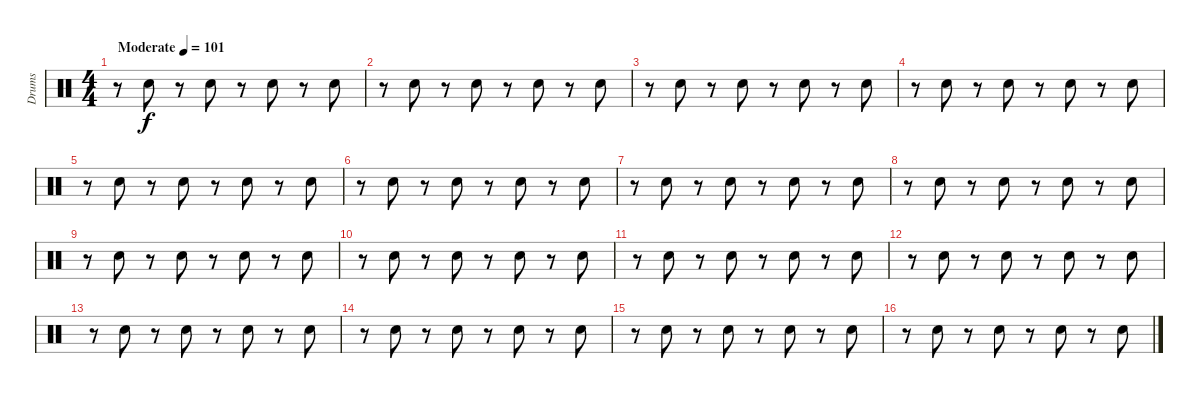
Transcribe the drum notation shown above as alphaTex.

\track ("Drums" "Drums") {instrument percussion}
\staff {score}
\articulation defaults
\ts (4 4)
\tempo (101 "Moderate")
\clef neutral
\ks c
r.8{dy f} "Electric Snare (hit)".8 r.8 "Electric Snare (hit)".8 r.8 "Electric Snare (hit)".8 r.8 "Electric Snare (hit)".8 |
r.8 "Electric Snare (hit)".8 r.8 "Electric Snare (hit)".8 r.8 "Electric Snare (hit)".8 r.8 "Electric Snare (hit)".8 |
r.8 "Electric Snare (hit)".8 r.8 "Electric Snare (hit)".8 r.8 "Electric Snare (hit)".8 r.8 "Electric Snare (hit)".8 |
r.8 "Electric Snare (hit)".8 r.8 "Electric Snare (hit)".8 r.8 "Electric Snare (hit)".8 r.8 "Electric Snare (hit)".8 |
r.8 "Electric Snare (hit)".8 r.8 "Electric Snare (hit)".8 r.8 "Electric Snare (hit)".8 r.8 "Electric Snare (hit)".8 |
r.8 "Electric Snare (hit)".8 r.8 "Electric Snare (hit)".8 r.8 "Electric Snare (hit)".8 r.8 "Electric Snare (hit)".8 |
r.8 "Electric Snare (hit)".8 r.8 "Electric Snare (hit)".8 r.8 "Electric Snare (hit)".8 r.8 "Electric Snare (hit)".8 |
r.8 "Electric Snare (hit)".8 r.8 "Electric Snare (hit)".8 r.8 "Electric Snare (hit)".8 r.8 "Electric Snare (hit)".8 |
r.8 "Electric Snare (hit)".8 r.8 "Electric Snare (hit)".8 r.8 "Electric Snare (hit)".8 r.8 "Electric Snare (hit)".8 |
r.8 "Electric Snare (hit)".8 r.8 "Electric Snare (hit)".8 r.8 "Electric Snare (hit)".8 r.8 "Electric Snare (hit)".8 |
r.8 "Electric Snare (hit)".8 r.8 "Electric Snare (hit)".8 r.8 "Electric Snare (hit)".8 r.8 "Electric Snare (hit)".8 |
r.8 "Electric Snare (hit)".8 r.8 "Electric Snare (hit)".8 r.8 "Electric Snare (hit)".8 r.8 "Electric Snare (hit)".8 |
r.8 "Electric Snare (hit)".8 r.8 "Electric Snare (hit)".8 r.8 "Electric Snare (hit)".8 r.8 "Electric Snare (hit)".8 |
r.8 "Electric Snare (hit)".8 r.8 "Electric Snare (hit)".8 r.8 "Electric Snare (hit)".8 r.8 "Electric Snare (hit)".8 |
r.8 "Electric Snare (hit)".8 r.8 "Electric Snare (hit)".8 r.8 "Electric Snare (hit)".8 r.8 "Electric Snare (hit)".8 |
r.8 "Electric Snare (hit)".8 r.8 "Electric Snare (hit)".8 r.8 "Electric Snare (hit)".8 r.8 "Electric Snare (hit)".8
